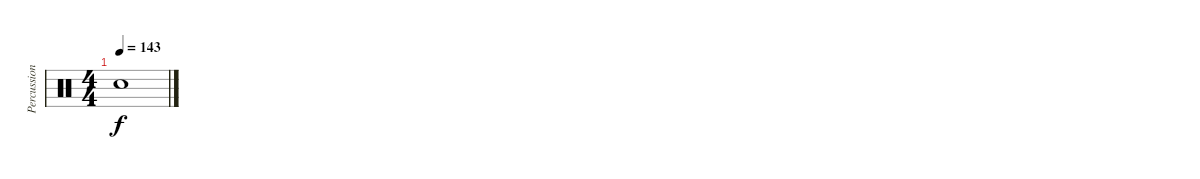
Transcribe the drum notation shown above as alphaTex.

\track ("Percussion" "Percussion") {instrument percussion}
\staff {score}
\articulation defaults
\ts (4 4)
\tempo 143
\clef neutral
\ks c "Snare (hit)"{t}.1{dy f}
